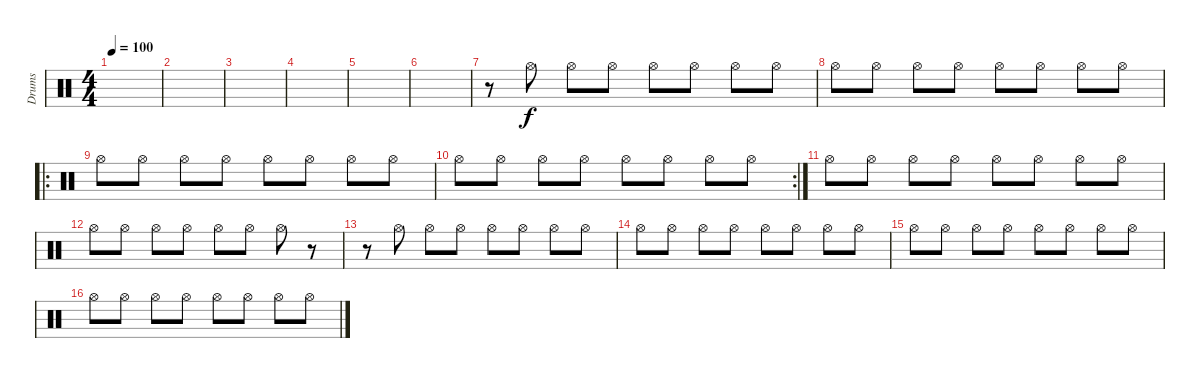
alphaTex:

\track ("Drums" "Drums") {instrument percussion}
\staff {score}
\articulation defaults
\ts (4 4)
\tempo 100
\clef neutral
\ks c
|
|
|
|
|
|
r.8 "Hi-Hat (open)".8 "Hi-Hat (open)".8 "Hi-Hat (open)".8 "Hi-Hat (open)".8 "Hi-Hat (open)".8 "Hi-Hat (open)".8 "Hi-Hat (open)".8 |
"Hi-Hat (open)".8 "Hi-Hat (open)".8 "Hi-Hat (open)".8 "Hi-Hat (open)".8 "Hi-Hat (open)".8 "Hi-Hat (open)".8 "Hi-Hat (open)".8 "Hi-Hat (open)".8 |
\ro "Hi-Hat (open)".8 "Hi-Hat (open)".8 "Hi-Hat (open)".8 "Hi-Hat (open)".8 "Hi-Hat (open)".8 "Hi-Hat (open)".8 "Hi-Hat (open)".8 "Hi-Hat (open)".8
|
\rc 2 "Hi-Hat (open)".8 "Hi-Hat (open)".8 "Hi-Hat (open)".8 "Hi-Hat (open)".8 "Hi-Hat (open)".8 "Hi-Hat (open)".8 "Hi-Hat (open)".8 "Hi-Hat (open)".8
|
"Hi-Hat (open)".8 "Hi-Hat (open)".8 "Hi-Hat (open)".8 "Hi-Hat (open)".8 "Hi-Hat (open)".8 "Hi-Hat (open)".8 "Hi-Hat (open)".8 "Hi-Hat (open)".8 |
"Hi-Hat (open)".8 "Hi-Hat (open)".8 "Hi-Hat (open)".8 "Hi-Hat (open)".8 "Hi-Hat (open)".8 "Hi-Hat (open)".8 "Hi-Hat (open)".8 r.8 |
r.8 "Hi-Hat (open)".8 "Hi-Hat (open)".8 "Hi-Hat (open)".8 "Hi-Hat (open)".8 "Hi-Hat (open)".8 "Hi-Hat (open)".8 "Hi-Hat (open)".8 |
"Hi-Hat (open)".8 "Hi-Hat (open)".8 "Hi-Hat (open)".8 "Hi-Hat (open)".8 "Hi-Hat (open)".8 "Hi-Hat (open)".8 "Hi-Hat (open)".8 "Hi-Hat (open)".8 |
"Hi-Hat (open)".8 "Hi-Hat (open)".8 "Hi-Hat (open)".8 "Hi-Hat (open)".8 "Hi-Hat (open)".8 "Hi-Hat (open)".8 "Hi-Hat (open)".8 "Hi-Hat (open)".8 |
"Hi-Hat (open)".8 "Hi-Hat (open)".8 "Hi-Hat (open)".8 "Hi-Hat (open)".8 "Hi-Hat (open)".8 "Hi-Hat (open)".8 "Hi-Hat (open)".8 "Hi-Hat (open)".8
